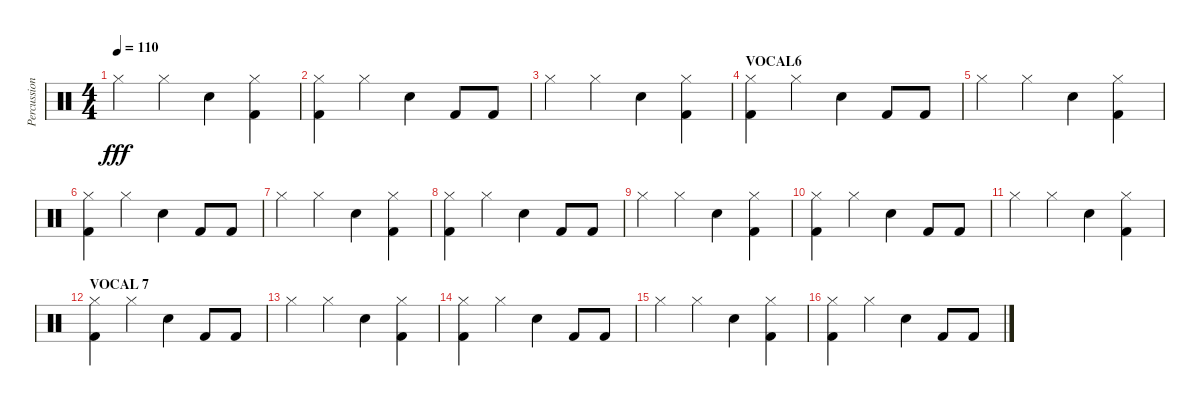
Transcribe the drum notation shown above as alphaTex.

\track ("Percussion" "Percussion") {instrument percussion}
\staff {score}
\articulation defaults
\ts (4 4)
\tempo 110
\clef neutral
\ks c "Hi-Hat (closed)".4{dy fff} "Hi-Hat (closed)".4 "Electric Snare (hit)".4
("Kick (hit) 2" "Hi-Hat (closed)").4 |
("Kick (hit) 2" "Hi-Hat (closed)").4 "Hi-Hat (closed)".4 "Electric Snare (hit)".4 "Kick (hit) 2".8 "Kick (hit) 2".8 |
"Hi-Hat (closed)".4 "Hi-Hat (closed)".4 "Electric Snare (hit)".4 ("Kick (hit) 2" "Hi-Hat (closed)").4 |
\section ("" "VOCAL6")
("Kick (hit) 2" "Hi-Hat (closed)").4 "Hi-Hat (closed)".4 "Electric Snare (hit)".4 "Kick (hit) 2".8 "Kick (hit) 2".8 |
"Hi-Hat (closed)".4 "Hi-Hat (closed)".4 "Electric Snare (hit)".4 ("Kick (hit) 2" "Hi-Hat (closed)").4 |
("Kick (hit) 2" "Hi-Hat (closed)").4 "Hi-Hat (closed)".4 "Electric Snare (hit)".4 "Kick (hit) 2".8 "Kick (hit) 2".8 |
"Hi-Hat (closed)".4 "Hi-Hat (closed)".4 "Electric Snare (hit)".4 ("Kick (hit) 2" "Hi-Hat (closed)").4 |
("Kick (hit) 2" "Hi-Hat (closed)").4 "Hi-Hat (closed)".4 "Electric Snare (hit)".4 "Kick (hit) 2".8 "Kick (hit) 2".8 |
"Hi-Hat (closed)".4 "Hi-Hat (closed)".4 "Electric Snare (hit)".4 ("Kick (hit) 2" "Hi-Hat (closed)").4 |
("Kick (hit) 2" "Hi-Hat (closed)").4 "Hi-Hat (closed)".4 "Electric Snare (hit)".4 "Kick (hit) 2".8 "Kick (hit) 2".8 |
"Hi-Hat (closed)".4 "Hi-Hat (closed)".4 "Electric Snare (hit)".4 ("Kick (hit) 2" "Hi-Hat (closed)").4 |
\section ("" "VOCAL 7")
("Kick (hit) 2" "Hi-Hat (closed)").4 "Hi-Hat (closed)".4 "Electric Snare (hit)".4 "Kick (hit) 2".8 "Kick (hit) 2".8 |
"Hi-Hat (closed)".4 "Hi-Hat (closed)".4 "Electric Snare (hit)".4 ("Kick (hit) 2" "Hi-Hat (closed)").4 |
("Kick (hit) 2" "Hi-Hat (closed)").4 "Hi-Hat (closed)".4 "Electric Snare (hit)".4 "Kick (hit) 2".8 "Kick (hit) 2".8 |
"Hi-Hat (closed)".4 "Hi-Hat (closed)".4 "Electric Snare (hit)".4 ("Kick (hit) 2" "Hi-Hat (closed)").4 |
("Kick (hit) 2" "Hi-Hat (closed)").4 "Hi-Hat (closed)".4 "Electric Snare (hit)".4 "Kick (hit) 2".8 "Kick (hit) 2".8
